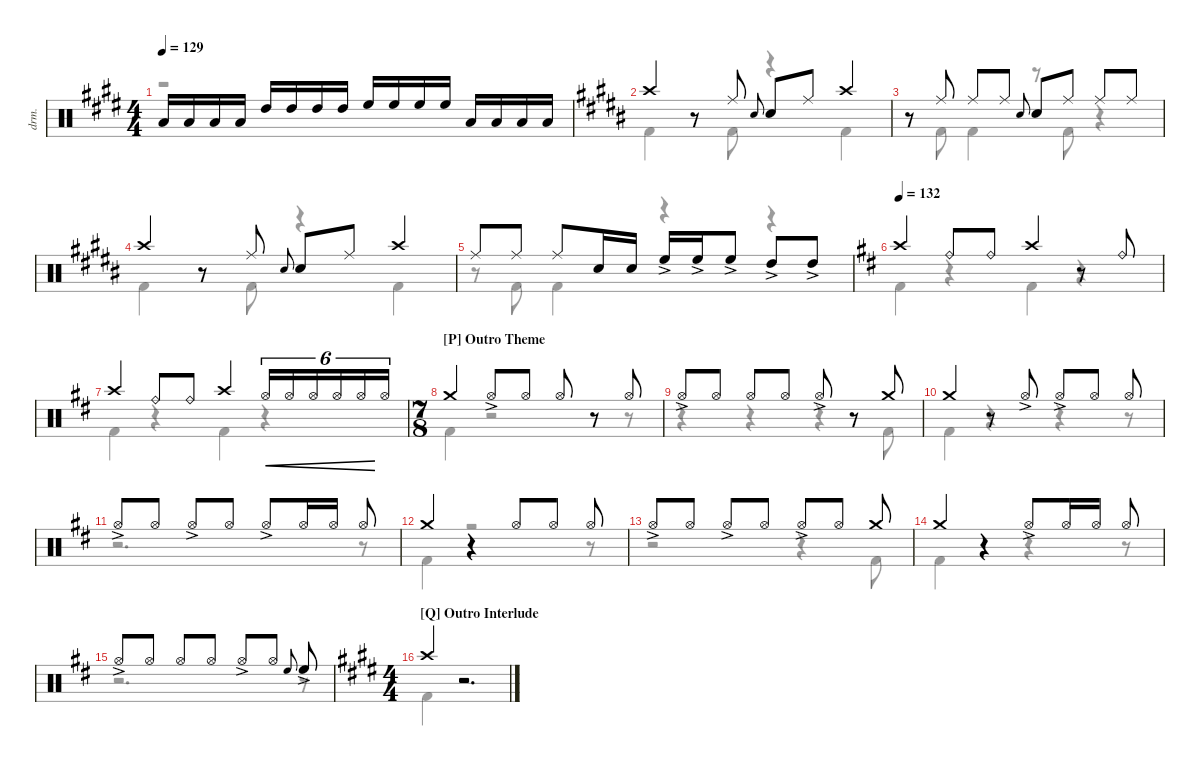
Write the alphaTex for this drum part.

\defaultSystemsLayout 4
\hideDynamics
\bracketExtendMode nobrackets
\track ("Drums" "drm.") {instrument percussion}
\staff {score}
\articulation defaults
\voice
\ts (4 4)
\tempo 129
\clef neutral
\ks e "Low Tom (hit)"{acc forcenatural}.16{dy mf} "Low Tom (hit)"{acc forcenatural}.16 "Low Tom (hit)"{acc forcenatural}.16 "Low Tom (hit)"{acc forcenatural}.16 "High Tom (hit)"{acc forcenatural}.16 "High Tom (hit)"{acc forcenatural}.16 "High Tom (hit)"{acc forcenatural}.16 "High Tom (hit)"{acc forcenatural}.16 "High Floor Tom (hit)"{acc forcenatural}.16 "High Floor Tom (hit)"{acc forcenatural}.16 "High Floor Tom (hit)"{acc forcenatural}.16 "High Floor Tom (hit)"{acc forcenatural}.16 "Low Tom (hit)"{acc forcenatural}.16 "Low Tom (hit)"{acc forcenatural}.16 "Low Tom (hit)"{acc forcenatural}.16 "Low Tom (hit)"{acc forcenatural}.16
|
\ks b "Crash high (hit)"{acc forcenatural}.4
r.8 "Ride (middle)"{acc forcenatural}.8 "Snare (hit) 2"{acc forcenatural}.8{gr onbeat} "Snare (hit) 2"{acc forcenatural}.8 "Ride (middle)"{acc forcenatural}.8 "Crash high (hit)"{acc forcenatural}.4 |
r.8 "Ride (middle)"{acc forcenatural}.8 "Ride (middle)"{acc forcenatural}.8 "Ride (middle)"{acc forcenatural}.8 "Snare (hit) 2"{acc forcenatural}.8{gr onbeat} "Snare (hit) 2"{acc forcenatural}.8 "Ride (middle)"{acc forcenatural}.8 "Ride (middle)"{acc forcenatural}.8 "Ride (middle)"{acc forcenatural}.8 |
"Crash high (hit)"{acc forcenatural}.4 r.8 "Ride (middle)"{acc forcenatural}.8 "Snare (hit) 2"{acc forcenatural}.8{gr onbeat} "Snare (hit) 2"{acc forcenatural}.8 "Ride (middle)"{acc forcenatural}.8 "Crash high (hit)"{acc forcenatural}.4 |
"Ride (middle)"{acc forcenatural}.8 "Ride (middle)"{acc forcenatural}.8 "Ride (middle)"{acc forcenatural}.8 "Snare (hit) 2"{acc forcenatural}.16 "Snare (hit) 2"{acc forcenatural}.16 "High Floor Tom (hit)"{ac acc forcenatural}.16 "High Floor Tom (hit)"{ac acc forcenatural}.16 "High Floor Tom (hit)"{ac acc forcenatural}.8 "High Tom (hit)"{ac acc forcenatural}.8 "High Tom (hit)"{ac acc forcenatural}.8 |
\tempo 132
\ks d "Crash high (hit)"{acc forcenatural}.4 "Ride (bell)"{acc forcenatural}.8 "Ride (bell)"{acc forcenatural}.8 "Crash high (hit)"{acc forcenatural}.4
r.8 "Ride (bell)"{acc forcenatural}.8 |
"Crash high (hit)"{acc forcenatural}.4 "Ride (bell)"{acc forcenatural}.8 "Ride (bell)"{acc forcenatural}.8 "Crash high (hit)"{acc forcenatural}.4 "Hi-Hat (open)"{acc forcenatural}.16{tu (6 4) cre} "Hi-Hat (open)"{acc forcenatural}.16{tu (6 4) cre} "Hi-Hat (open)"{acc forcenatural}.16{tu (6 4) cre} "Hi-Hat (open)"{acc forcenatural}.16{tu (6 4) cre} "Hi-Hat (open)"{acc forcenatural}.16{tu (6 4) cre} "Hi-Hat (open)"{acc forcenatural}.16{tu (6 4)} |
\ts (7 8)
\beaming (8 3 2 2)
\section ("P" "Outro Theme")
"Crash medium (hit)"{acc forcenatural}.4 "Hi-Hat (open)"{ac acc forcenatural}.8{beam merge} "Hi-Hat (open)"{acc forcenatural}.8{beam split} "Hi-Hat (open)"{acc forcenatural}.8 r.8 "Hi-Hat (open)"{acc forcenatural}.8 |
"Hi-Hat (open)"{ac acc forcenatural}.8 "Hi-Hat (open)"{acc forcenatural}.8{beam split} "Hi-Hat (open)"{acc forcenatural}.8{beam merge} "Hi-Hat (open)"{acc forcenatural}.8{beam split} "Hi-Hat (open)"{ac acc forcenatural}.8 r.8 "Crash medium (hit)"{acc forcenatural}.8 |
"Crash medium (hit)"{acc forcenatural}.4 r.8 "Hi-Hat (open)"{ac acc forcenatural}.8{beam split} "Hi-Hat (open)"{ac acc forcenatural}.8{beam merge} "Hi-Hat (open)"{acc forcenatural}.8{beam split} "Hi-Hat (open)"{acc forcenatural}.8 |
"Hi-Hat (open)"{ac acc forcenatural}.8 "Hi-Hat (open)"{acc forcenatural}.8{beam split} "Hi-Hat (open)"{ac acc forcenatural}.8{beam merge} "Hi-Hat (open)"{acc forcenatural}.8{beam split} "Hi-Hat (open)"{ac acc forcenatural}.8{beam merge} "Hi-Hat (open)"{acc forcenatural}.16 "Hi-Hat (open)"{acc forcenatural}.16{beam split} "Hi-Hat (open)"{acc forcenatural}.8 |
"Crash medium (hit)"{acc forcenatural}.4 r.4 "Hi-Hat (open)"{acc forcenatural}.8{beam merge} "Hi-Hat (open)"{acc forcenatural}.8{beam split} "Hi-Hat (open)"{acc forcenatural}.8 |
"Hi-Hat (open)"{ac acc forcenatural}.8{beam merge} "Hi-Hat (open)"{acc forcenatural}.8{beam split} "Hi-Hat (open)"{ac acc forcenatural}.8{beam merge} "Hi-Hat (open)"{acc forcenatural}.8{beam split} "Hi-Hat (open)"{ac acc forcenatural}.8{beam merge} "Hi-Hat (open)"{acc forcenatural}.8{beam split} "Crash medium (hit)"{acc forcenatural}.8 |
"Crash medium (hit)"{acc forcenatural}.4 r.4 "Hi-Hat (open)"{ac acc forcenatural}.8{beam merge} "Hi-Hat (open)"{acc forcenatural}.16 "Hi-Hat (open)"{acc forcenatural}.16{beam split} "Hi-Hat (open)"{acc forcenatural}.8 |
"Hi-Hat (open)"{ac acc forcenatural}.8{beam merge} "Hi-Hat (open)"{acc forcenatural}.8{beam split} "Hi-Hat (open)"{acc forcenatural}.8{beam merge} "Hi-Hat (open)"{acc forcenatural}.8{beam split} "Hi-Hat (open)"{ac acc forcenatural}.8{beam merge} "Hi-Hat (open)"{acc forcenatural}.8{beam split} "High Floor Tom (hit)"{acc forcenatural}.8{gr onbeat} "High Floor Tom (hit)"{ac acc forcenatural}.8 |
\ts (4 4)
\beaming (8 2 2 2 2)
\section ("Q" "Outro Interlude")
\ks e "Crash high (hit)"{acc forcenatural}.4
r.2{d}
\voice
\clef neutral
\ottava regular
\simile none
\ks e
r.1{dy mf} |
\ks b "Kick (hit) 2"{acc forcenatural}.4
r.8 "Kick (hit) 2"{acc forcenatural}.8 r.4 "Kick (hit) 2"{acc forcenatural}.4 |
r.8 "Kick (hit) 2"{acc forcenatural}.8 "Kick (hit) 2"{acc forcenatural}.4 r.8 "Kick (hit) 2"{acc forcenatural}.8 r.4 |
"Kick (hit) 2"{acc forcenatural}.4 r.8 "Kick (hit) 2"{acc forcenatural}.8 r.4 "Kick (hit) 2"{acc forcenatural}.4 |
r.8 "Kick (hit) 2"{acc forcenatural}.8 "Kick (hit) 2"{acc forcenatural}.4 r.4 r.4 |
\ks d "Kick (hit) 2"{acc forcenatural}.4
r.4 "Kick (hit) 2"{acc forcenatural}.4 r.4 |
"Kick (hit) 2"{acc forcenatural}.4 r.4 "Kick (hit) 2"{acc forcenatural}.4 r.4 |
"Kick (hit) 2"{acc forcenatural}.4 r.2 r.8 |
r.4 r.4 r.4 "Kick (hit) 2"{acc forcenatural}.8 |
"Kick (hit) 2"{acc forcenatural}.4 r.4 r.4 r.8 |
r.2{d} r.8 |
"Kick (hit) 2"{acc forcenatural}.4 r.2 r.8 |
r.2 r.4 "Kick (hit) 2"{acc forcenatural}.8 |
"Kick (hit) 2"{acc forcenatural}.4 r.4 r.4 r.8 |
r.2{d} r.8 |
\ks e "Kick (hit) 2"{acc forcenatural}.4
r.2{d}
